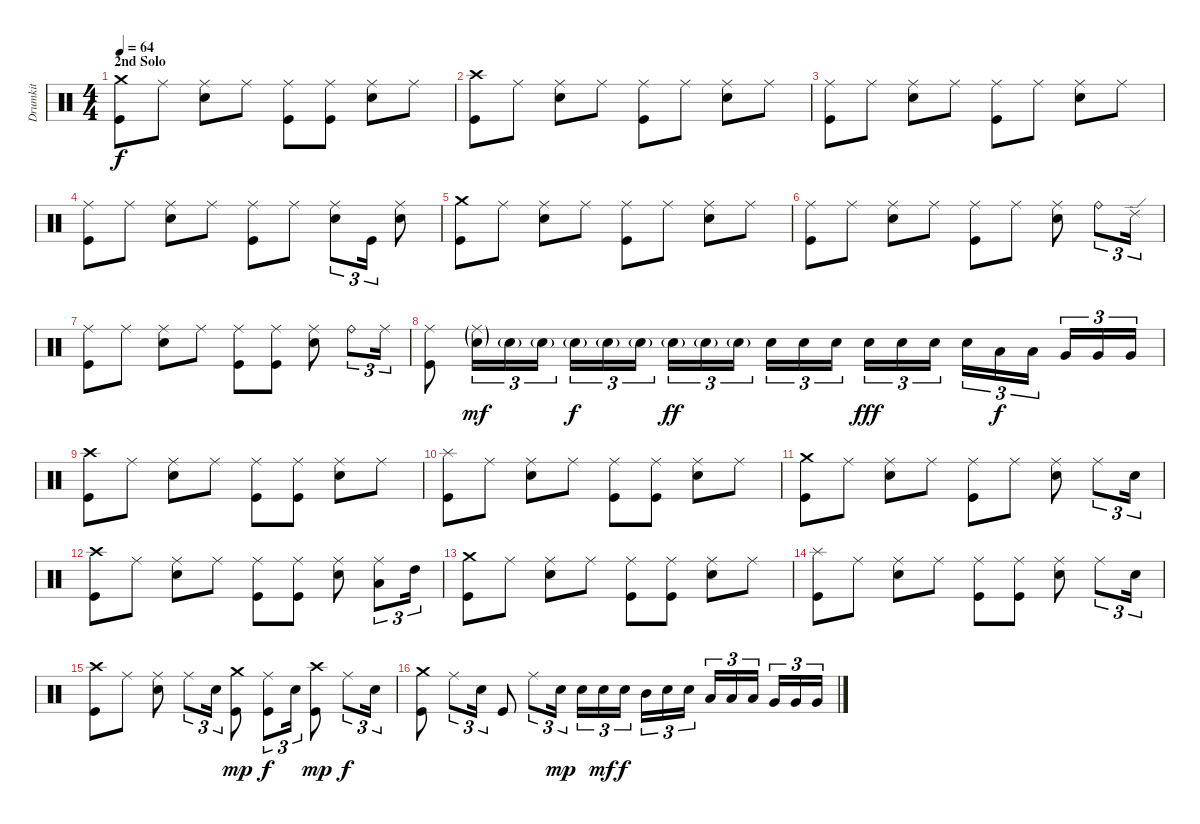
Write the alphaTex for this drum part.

\track ("Drumkit" "Drumkit") {instrument percussion}
\staff {score}
\articulation defaults
\ts (4 4)
\section ("" "2nd Solo")
\tempo 64
\clef neutral
\ks c
("Crash medium (hit)" "Kick (hit)").8{dy f} "Ride (middle)".8 ("Ride (middle)" "Snare (hit) 2").8 "Ride (middle)".8 ("Ride (middle)" "Kick (hit)").8 ("Ride (middle)" "Kick (hit)").8 ("Ride (middle)" "Snare (hit) 2").8 "Ride (middle)".8 |
("Crash high (hit)" "Kick (hit)").8 "Ride (middle)".8 ("Ride (middle)" "Snare (hit) 2").8 "Ride (middle)".8 ("Ride (middle)" "Kick (hit)").8 "Ride (middle)".8 ("Ride (middle)" "Snare (hit) 2").8 "Ride (middle)".8 |
("Ride (middle)" "Kick (hit)").8 "Ride (middle)".8 ("Ride (middle)" "Snare (hit) 2").8 "Ride (middle)".8 ("Ride (middle)" "Kick (hit)").8 "Ride (middle)".8 ("Ride (middle)" "Snare (hit) 2").8 "Ride (middle)".8 |
("Ride (middle)" "Kick (hit)").8 "Ride (middle)".8 ("Ride (middle)" "Snare (hit) 2").8 "Ride (middle)".8 ("Ride (middle)" "Kick (hit)").8 "Ride (middle)".8 ("Ride (middle)" "Snare (hit) 2").8{tu (3 2)} "Kick (hit)".16{tu (3 2)} ("Ride (middle)" "Snare (hit) 2").8 |
("Crash medium (hit)" "Kick (hit)").8 "Ride (middle)".8 ("Ride (middle)" "Snare (hit) 2").8 "Ride (middle)".8 ("Ride (middle)" "Kick (hit)").8 "Ride (middle)".8 ("Ride (middle)" "Snare (hit) 2").8 "Ride (middle)".8 |
("Ride (middle)" "Kick (hit)").8 "Ride (middle)".8 ("Ride (middle)" "Snare (hit) 2").8 "Ride (middle)".8 ("Ride (middle)" "Kick (hit)").8 "Ride (middle)".8 ("Ride (middle)" "Snare (hit) 2").8 "Ride (bell)".8{tu (3 2)} "Ride (edge) 2".16{tu (3 2)} |
("Ride (middle)" "Kick (hit)").8 "Ride (middle)".8 ("Ride (middle)" "Snare (hit) 2").8 "Ride (middle)".8 ("Ride (middle)" "Kick (hit)").8 ("Ride (middle)" "Kick (hit)").8 ("Ride (middle)" "Snare (hit) 2").8 "Ride (bell)".8{tu (3 2)} "Ride (middle)".16{tu (3 2)} |
("Ride (middle)" "Kick (hit)").8 ("Ride (middle)"{g} "Snare (hit) 2"{g}).16{tu (3 2) dy mf} "Snare (hit) 2"{g}.16{tu (3 2)} "Snare (hit) 2"{g}.16{tu (3 2)} "Snare (hit) 2"{g}.16{tu (3 2) dy f} "Snare (hit) 2"{g}.16{tu (3 2)} "Snare (hit) 2"{g}.16{tu (3 2)} "Snare (hit) 2"{g}.16{tu (3 2) dy ff} "Snare (hit) 2"{g}.16{tu (3 2)} "Snare (hit) 2"{g}.16{tu (3 2)} "Snare (hit) 2".16{tu (3 2)} "Snare (hit) 2".16{tu (3 2)} "Snare (hit) 2".16{tu (3 2)} "Snare (hit) 2".16{tu (3 2) dy fff} "Snare (hit) 2".16{tu (3 2)} "Snare (hit) 2".16{tu (3 2)} "Snare (hit) 2".16{tu (3 2)} "Low Tom (hit)".16{tu (3 2) dy f} "Low Tom (hit)".16{tu (3 2)} "Very Low Tom (hit)".16{tu (3 2)} "Very Low Tom (hit)".16{tu (3 2)} "Very Low Tom (hit)".16{tu (3 2)} |
("Crash high (hit)" "Kick (hit)").8 "Ride (middle)".8 ("Ride (middle)" "Snare (hit) 2").8 "Ride (middle)".8 ("Ride (middle)" "Kick (hit)").8 ("Ride (middle)" "Kick (hit)").8 ("Ride (middle)" "Snare (hit) 2").8 "Ride (middle)".8 |
("Splash (hit)" "Kick (hit)").8 "Ride (middle)".8 ("Ride (middle)" "Snare (hit) 2").8 "Ride (middle)".8 ("Ride (middle)" "Kick (hit)").8 ("Ride (middle)" "Kick (hit)").8 ("Ride (middle)" "Snare (hit) 2").8 "Ride (middle)".8 |
("Crash medium (hit)" "Kick (hit)").8 "Ride (middle)".8 ("Ride (middle)" "Snare (hit) 2").8 "Ride (middle)".8 ("Ride (middle)" "Kick (hit)").8 "Ride (middle)".8 ("Ride (middle)" "Snare (hit) 2").8 "Ride (middle)".8{tu (3 2)} "Snare (hit) 2".16{tu (3 2)} |
("Crash high (hit)" "Kick (hit)").8 "Ride (middle)".8 ("Ride (middle)" "Snare (hit) 2").8 "Ride (middle)".8 ("Ride (middle)" "Kick (hit)").8 ("Ride (middle)" "Kick (hit)").8 ("Ride (middle)" "Snare (hit) 2").8 ("Ride (middle)" "Low Tom (hit)").8{tu (3 2)} "High Tom (hit)".16{tu (3 2)} |
("Crash medium (hit)" "Kick (hit)").8 "Ride (middle)".8 ("Ride (middle)" "Snare (hit) 2").8 "Ride (middle)".8 ("Ride (middle)" "Kick (hit)").8 ("Ride (middle)" "Kick (hit)").8 ("Ride (middle)" "Snare (hit) 2").8 "Ride (middle)".8 |
("Splash (hit)" "Kick (hit)").8 "Ride (middle)".8 ("Ride (middle)" "Snare (hit) 2").8 "Ride (middle)".8 ("Ride (middle)" "Kick (hit)").8 ("Ride (middle)" "Kick (hit)").8 ("Ride (middle)" "Snare (hit) 2").8 "Ride (middle)".8{tu (3 2)} "Snare (hit) 2".16{tu (3 2)} |
("Crash high (hit)" "Kick (hit)").8 "Ride (middle)".8 ("Ride (middle)" "Snare (hit) 2").8 "Ride (middle)".8{tu (3 2)} "Snare (hit) 2".16{tu (3 2)} ("Crash medium (hit)" "Kick (hit)").8{dy mp} ("Ride (middle)" "Kick (hit)").8{tu (3 2) dy f} "Snare (hit) 2".16{tu (3 2)} ("Crash high (hit)" "Kick (hit)").8{dy mp} "Ride (middle)".8{tu (3 2) dy f} "Snare (hit) 2".16{tu (3 2)} |
("Crash medium (hit)" "Kick (hit)").8 "Ride (middle)".8{tu (3 2)} "Snare (hit) 2".16{tu (3 2)} "Kick (hit)".8 "Ride (middle)".8{tu (3 2)} "Snare (hit) 2".16{tu (3 2) dy mp} "Snare (hit) 2".16{tu (3 2)} "Snare (hit) 2".16{tu (3 2) dy mf} "Snare (hit) 2".16{tu (3 2) dy f} "Mid Tom (hit)".16{tu (3 2)} "Snare (hit) 2".16{tu (3 2)} "Snare (hit) 2".16{tu (3 2)} "Low Tom (hit)".16{tu (3 2)} "Low Tom (hit)".16{tu (3 2)} "Low Tom (hit)".16{tu (3 2)} "Very Low Tom (hit)".16{tu (3 2)} "Very Low Tom (hit)".16{tu (3 2)} "Very Low Tom (hit)".16{tu (3 2)}
